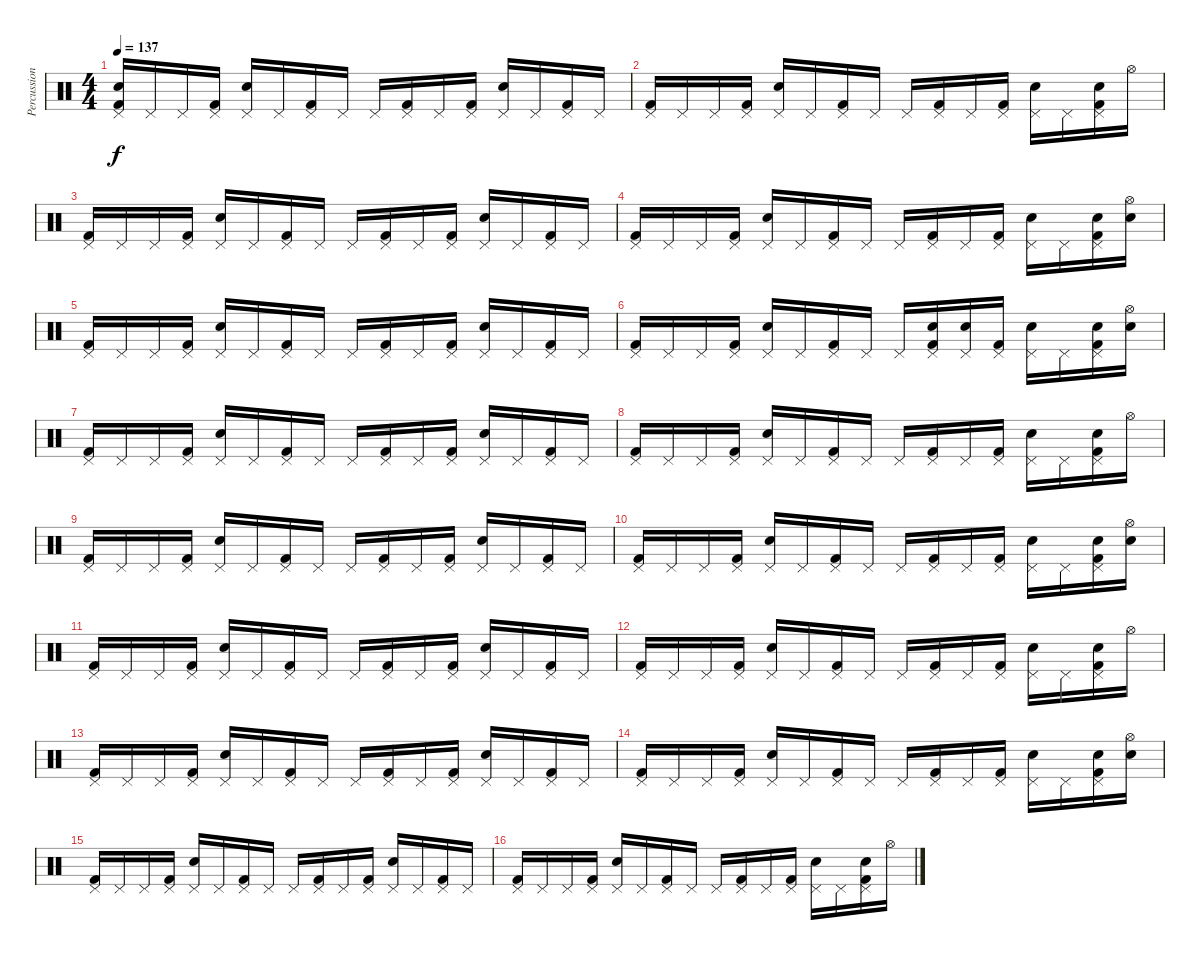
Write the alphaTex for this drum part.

\track ("Percussion" "Percussion") {instrument percussion}
\staff {score}
\articulation defaults
\ts (4 4)
\tempo 137
\clef neutral
\ks c
("Pedal Hi-Hat (hit)" "Snare (hit) 2" "Kick (hit) 2").16{dy f} "Pedal Hi-Hat (hit)".16 "Pedal Hi-Hat (hit)".16 ("Pedal Hi-Hat (hit)" "Kick (hit) 2").16 ("Pedal Hi-Hat (hit)" "Snare (hit) 2").16 "Pedal Hi-Hat (hit)".16 ("Pedal Hi-Hat (hit)" "Kick (hit) 2").16 "Pedal Hi-Hat (hit)".16 "Pedal Hi-Hat (hit)".16 ("Pedal Hi-Hat (hit)" "Kick (hit) 2").16 "Pedal Hi-Hat (hit)".16 ("Pedal Hi-Hat (hit)" "Kick (hit) 2").16 ("Pedal Hi-Hat (hit)" "Snare (hit) 2").16 "Pedal Hi-Hat (hit)".16 ("Pedal Hi-Hat (hit)" "Kick (hit) 2").16 "Pedal Hi-Hat (hit)".16 |
("Pedal Hi-Hat (hit)" "Kick (hit) 2").16 "Pedal Hi-Hat (hit)".16 "Pedal Hi-Hat (hit)".16 ("Pedal Hi-Hat (hit)" "Kick (hit) 2").16 ("Pedal Hi-Hat (hit)" "Snare (hit) 2").16 "Pedal Hi-Hat (hit)".16 ("Pedal Hi-Hat (hit)" "Kick (hit) 2").16 "Pedal Hi-Hat (hit)".16 "Pedal Hi-Hat (hit)".16 ("Pedal Hi-Hat (hit)" "Kick (hit) 2").16 "Pedal Hi-Hat (hit)".16 ("Pedal Hi-Hat (hit)" "Kick (hit) 2").16 ("Pedal Hi-Hat (hit)" "Snare (hit) 2").16 "Pedal Hi-Hat (hit)".16 ("Pedal Hi-Hat (hit)" "Snare (hit) 2" "Kick (hit) 2").16 "Hi-Hat (open)".16 |
("Pedal Hi-Hat (hit)" "Kick (hit) 2").16 "Pedal Hi-Hat (hit)".16 "Pedal Hi-Hat (hit)".16 ("Pedal Hi-Hat (hit)" "Kick (hit) 2").16 ("Pedal Hi-Hat (hit)" "Snare (hit) 2").16 "Pedal Hi-Hat (hit)".16 ("Pedal Hi-Hat (hit)" "Kick (hit) 2").16 "Pedal Hi-Hat (hit)".16 "Pedal Hi-Hat (hit)".16 ("Pedal Hi-Hat (hit)" "Kick (hit) 2").16 "Pedal Hi-Hat (hit)".16 ("Pedal Hi-Hat (hit)" "Kick (hit) 2").16 ("Pedal Hi-Hat (hit)" "Snare (hit) 2").16 "Pedal Hi-Hat (hit)".16 ("Pedal Hi-Hat (hit)" "Kick (hit) 2").16 "Pedal Hi-Hat (hit)".16 |
("Pedal Hi-Hat (hit)" "Kick (hit) 2").16 "Pedal Hi-Hat (hit)".16 "Pedal Hi-Hat (hit)".16 ("Pedal Hi-Hat (hit)" "Kick (hit) 2").16 ("Pedal Hi-Hat (hit)" "Snare (hit) 2").16 "Pedal Hi-Hat (hit)".16 ("Pedal Hi-Hat (hit)" "Kick (hit) 2").16 "Pedal Hi-Hat (hit)".16 "Pedal Hi-Hat (hit)".16 ("Pedal Hi-Hat (hit)" "Kick (hit) 2").16 "Pedal Hi-Hat (hit)".16 ("Pedal Hi-Hat (hit)" "Kick (hit) 2").16 ("Pedal Hi-Hat (hit)" "Snare (hit) 2").16 "Pedal Hi-Hat (hit)".16 ("Pedal Hi-Hat (hit)" "Snare (hit) 2" "Kick (hit) 2").16 ("Hi-Hat (open)" "Snare (hit) 2").16 |
("Pedal Hi-Hat (hit)" "Kick (hit) 2").16 "Pedal Hi-Hat (hit)".16 "Pedal Hi-Hat (hit)".16 ("Pedal Hi-Hat (hit)" "Kick (hit) 2").16 ("Pedal Hi-Hat (hit)" "Snare (hit) 2").16 "Pedal Hi-Hat (hit)".16 ("Pedal Hi-Hat (hit)" "Kick (hit) 2").16 "Pedal Hi-Hat (hit)".16 "Pedal Hi-Hat (hit)".16 ("Pedal Hi-Hat (hit)" "Kick (hit) 2").16 "Pedal Hi-Hat (hit)".16 ("Pedal Hi-Hat (hit)" "Kick (hit) 2").16 ("Pedal Hi-Hat (hit)" "Snare (hit) 2").16 "Pedal Hi-Hat (hit)".16 ("Pedal Hi-Hat (hit)" "Kick (hit) 2").16 "Pedal Hi-Hat (hit)".16 |
("Pedal Hi-Hat (hit)" "Kick (hit) 2").16 "Pedal Hi-Hat (hit)".16 "Pedal Hi-Hat (hit)".16 ("Pedal Hi-Hat (hit)" "Kick (hit) 2").16 ("Pedal Hi-Hat (hit)" "Snare (hit) 2").16 "Pedal Hi-Hat (hit)".16 ("Pedal Hi-Hat (hit)" "Kick (hit) 2").16 "Pedal Hi-Hat (hit)".16 "Pedal Hi-Hat (hit)".16 ("Pedal Hi-Hat (hit)" "Snare (hit) 2" "Kick (hit) 2").16 ("Pedal Hi-Hat (hit)" "Snare (hit) 2").16 ("Pedal Hi-Hat (hit)" "Kick (hit) 2").16 ("Pedal Hi-Hat (hit)" "Snare (hit) 2").16 "Pedal Hi-Hat (hit)".16 ("Pedal Hi-Hat (hit)" "Snare (hit) 2" "Kick (hit) 2").16 ("Hi-Hat (open)" "Snare (hit) 2").16 |
("Pedal Hi-Hat (hit)" "Kick (hit) 2").16 "Pedal Hi-Hat (hit)".16 "Pedal Hi-Hat (hit)".16 ("Pedal Hi-Hat (hit)" "Kick (hit) 2").16 ("Pedal Hi-Hat (hit)" "Snare (hit) 2").16 "Pedal Hi-Hat (hit)".16 ("Pedal Hi-Hat (hit)" "Kick (hit) 2").16 "Pedal Hi-Hat (hit)".16 "Pedal Hi-Hat (hit)".16 ("Pedal Hi-Hat (hit)" "Kick (hit) 2").16 "Pedal Hi-Hat (hit)".16 ("Pedal Hi-Hat (hit)" "Kick (hit) 2").16 ("Pedal Hi-Hat (hit)" "Snare (hit) 2").16 "Pedal Hi-Hat (hit)".16 ("Pedal Hi-Hat (hit)" "Kick (hit) 2").16 "Pedal Hi-Hat (hit)".16 |
("Pedal Hi-Hat (hit)" "Kick (hit) 2").16 "Pedal Hi-Hat (hit)".16 "Pedal Hi-Hat (hit)".16 ("Pedal Hi-Hat (hit)" "Kick (hit) 2").16 ("Pedal Hi-Hat (hit)" "Snare (hit) 2").16 "Pedal Hi-Hat (hit)".16 ("Pedal Hi-Hat (hit)" "Kick (hit) 2").16 "Pedal Hi-Hat (hit)".16 "Pedal Hi-Hat (hit)".16 ("Pedal Hi-Hat (hit)" "Kick (hit) 2").16 "Pedal Hi-Hat (hit)".16 ("Pedal Hi-Hat (hit)" "Kick (hit) 2").16 ("Pedal Hi-Hat (hit)" "Snare (hit) 2").16 "Pedal Hi-Hat (hit)".16 ("Pedal Hi-Hat (hit)" "Snare (hit) 2" "Kick (hit) 2").16 "Hi-Hat (open)".16 |
("Pedal Hi-Hat (hit)" "Kick (hit) 2").16 "Pedal Hi-Hat (hit)".16 "Pedal Hi-Hat (hit)".16 ("Pedal Hi-Hat (hit)" "Kick (hit) 2").16 ("Pedal Hi-Hat (hit)" "Snare (hit) 2").16 "Pedal Hi-Hat (hit)".16 ("Pedal Hi-Hat (hit)" "Kick (hit) 2").16 "Pedal Hi-Hat (hit)".16 "Pedal Hi-Hat (hit)".16 ("Pedal Hi-Hat (hit)" "Kick (hit) 2").16 "Pedal Hi-Hat (hit)".16 ("Pedal Hi-Hat (hit)" "Kick (hit) 2").16 ("Pedal Hi-Hat (hit)" "Snare (hit) 2").16 "Pedal Hi-Hat (hit)".16 ("Pedal Hi-Hat (hit)" "Kick (hit) 2").16 "Pedal Hi-Hat (hit)".16 |
("Pedal Hi-Hat (hit)" "Kick (hit) 2").16 "Pedal Hi-Hat (hit)".16 "Pedal Hi-Hat (hit)".16 ("Pedal Hi-Hat (hit)" "Kick (hit) 2").16 ("Pedal Hi-Hat (hit)" "Snare (hit) 2").16 "Pedal Hi-Hat (hit)".16 ("Pedal Hi-Hat (hit)" "Kick (hit) 2").16 "Pedal Hi-Hat (hit)".16 "Pedal Hi-Hat (hit)".16 ("Pedal Hi-Hat (hit)" "Kick (hit) 2").16 "Pedal Hi-Hat (hit)".16 ("Pedal Hi-Hat (hit)" "Kick (hit) 2").16 ("Pedal Hi-Hat (hit)" "Snare (hit) 2").16 "Pedal Hi-Hat (hit)".16 ("Pedal Hi-Hat (hit)" "Snare (hit) 2" "Kick (hit) 2").16 ("Hi-Hat (open)" "Snare (hit) 2").16 |
("Pedal Hi-Hat (hit)" "Kick (hit) 2").16 "Pedal Hi-Hat (hit)".16 "Pedal Hi-Hat (hit)".16 ("Pedal Hi-Hat (hit)" "Kick (hit) 2").16 ("Pedal Hi-Hat (hit)" "Snare (hit) 2").16 "Pedal Hi-Hat (hit)".16 ("Pedal Hi-Hat (hit)" "Kick (hit) 2").16 "Pedal Hi-Hat (hit)".16 "Pedal Hi-Hat (hit)".16 ("Pedal Hi-Hat (hit)" "Kick (hit) 2").16 "Pedal Hi-Hat (hit)".16 ("Pedal Hi-Hat (hit)" "Kick (hit) 2").16 ("Pedal Hi-Hat (hit)" "Snare (hit) 2").16 "Pedal Hi-Hat (hit)".16 ("Pedal Hi-Hat (hit)" "Kick (hit) 2").16 "Pedal Hi-Hat (hit)".16 |
("Pedal Hi-Hat (hit)" "Kick (hit) 2").16 "Pedal Hi-Hat (hit)".16 "Pedal Hi-Hat (hit)".16 ("Pedal Hi-Hat (hit)" "Kick (hit) 2").16 ("Pedal Hi-Hat (hit)" "Snare (hit) 2").16 "Pedal Hi-Hat (hit)".16 ("Pedal Hi-Hat (hit)" "Kick (hit) 2").16 "Pedal Hi-Hat (hit)".16 "Pedal Hi-Hat (hit)".16 ("Pedal Hi-Hat (hit)" "Kick (hit) 2").16 "Pedal Hi-Hat (hit)".16 ("Pedal Hi-Hat (hit)" "Kick (hit) 2").16 ("Pedal Hi-Hat (hit)" "Snare (hit) 2").16 "Pedal Hi-Hat (hit)".16 ("Pedal Hi-Hat (hit)" "Snare (hit) 2" "Kick (hit) 2").16 "Hi-Hat (open)".16 |
("Pedal Hi-Hat (hit)" "Kick (hit) 2").16 "Pedal Hi-Hat (hit)".16 "Pedal Hi-Hat (hit)".16 ("Pedal Hi-Hat (hit)" "Kick (hit) 2").16 ("Pedal Hi-Hat (hit)" "Snare (hit) 2").16 "Pedal Hi-Hat (hit)".16 ("Pedal Hi-Hat (hit)" "Kick (hit) 2").16 "Pedal Hi-Hat (hit)".16 "Pedal Hi-Hat (hit)".16 ("Pedal Hi-Hat (hit)" "Kick (hit) 2").16 "Pedal Hi-Hat (hit)".16 ("Pedal Hi-Hat (hit)" "Kick (hit) 2").16 ("Pedal Hi-Hat (hit)" "Snare (hit) 2").16 "Pedal Hi-Hat (hit)".16 ("Pedal Hi-Hat (hit)" "Kick (hit) 2").16 "Pedal Hi-Hat (hit)".16 |
("Pedal Hi-Hat (hit)" "Kick (hit) 2").16 "Pedal Hi-Hat (hit)".16 "Pedal Hi-Hat (hit)".16 ("Pedal Hi-Hat (hit)" "Kick (hit) 2").16 ("Pedal Hi-Hat (hit)" "Snare (hit) 2").16 "Pedal Hi-Hat (hit)".16 ("Pedal Hi-Hat (hit)" "Kick (hit) 2").16 "Pedal Hi-Hat (hit)".16 "Pedal Hi-Hat (hit)".16 ("Pedal Hi-Hat (hit)" "Kick (hit) 2").16 "Pedal Hi-Hat (hit)".16 ("Pedal Hi-Hat (hit)" "Kick (hit) 2").16 ("Pedal Hi-Hat (hit)" "Snare (hit) 2").16 "Pedal Hi-Hat (hit)".16 ("Pedal Hi-Hat (hit)" "Snare (hit) 2" "Kick (hit) 2").16 ("Hi-Hat (open)" "Snare (hit) 2").16 |
("Pedal Hi-Hat (hit)" "Kick (hit) 2").16 "Pedal Hi-Hat (hit)".16 "Pedal Hi-Hat (hit)".16 ("Pedal Hi-Hat (hit)" "Kick (hit) 2").16 ("Pedal Hi-Hat (hit)" "Snare (hit) 2").16 "Pedal Hi-Hat (hit)".16 ("Pedal Hi-Hat (hit)" "Kick (hit) 2").16 "Pedal Hi-Hat (hit)".16 "Pedal Hi-Hat (hit)".16 ("Pedal Hi-Hat (hit)" "Kick (hit) 2").16 "Pedal Hi-Hat (hit)".16 ("Pedal Hi-Hat (hit)" "Kick (hit) 2").16 ("Pedal Hi-Hat (hit)" "Snare (hit) 2").16 "Pedal Hi-Hat (hit)".16 ("Pedal Hi-Hat (hit)" "Kick (hit) 2").16 "Pedal Hi-Hat (hit)".16 |
("Pedal Hi-Hat (hit)" "Kick (hit) 2").16 "Pedal Hi-Hat (hit)".16 "Pedal Hi-Hat (hit)".16 ("Pedal Hi-Hat (hit)" "Kick (hit) 2").16 ("Pedal Hi-Hat (hit)" "Snare (hit) 2").16 "Pedal Hi-Hat (hit)".16 ("Pedal Hi-Hat (hit)" "Kick (hit) 2").16 "Pedal Hi-Hat (hit)".16 "Pedal Hi-Hat (hit)".16 ("Pedal Hi-Hat (hit)" "Kick (hit) 2").16 "Pedal Hi-Hat (hit)".16 ("Pedal Hi-Hat (hit)" "Kick (hit) 2").16 ("Pedal Hi-Hat (hit)" "Snare (hit) 2").16 "Pedal Hi-Hat (hit)".16 ("Pedal Hi-Hat (hit)" "Snare (hit) 2" "Kick (hit) 2").16 "Hi-Hat (open)".16
